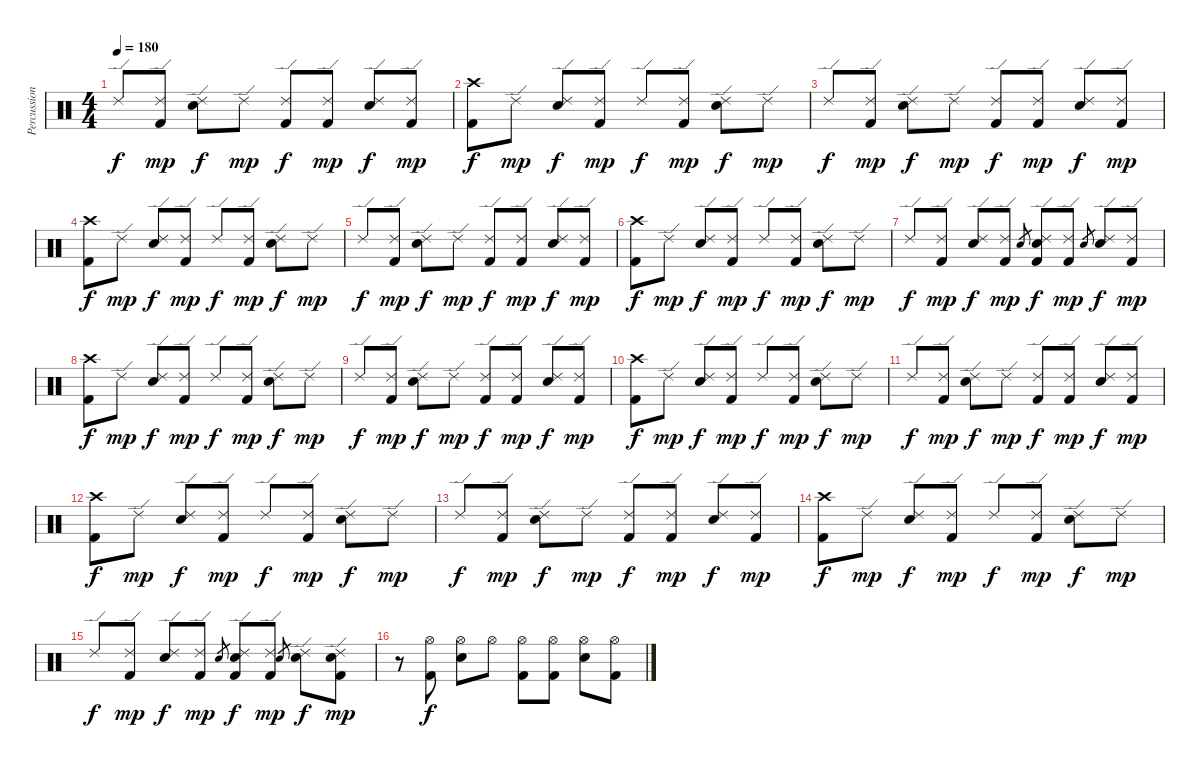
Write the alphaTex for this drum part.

\track ("Percussion" "Percussion") {instrument percussion}
\staff {score}
\articulation defaults
\ts (4 4)
\tempo 180
\clef neutral
\ks c "Ride (edge) 2".8{dy f}
("Ride (edge) 2" "Kick (hit) 2").8{dy mp} ("Ride (edge) 2" "Electric Snare (hit)").8{dy f} "Ride (edge) 2".8{dy mp} ("Ride (edge) 2" "Kick (hit) 2").8{dy f} ("Ride (edge) 2" "Kick (hit) 2").8{dy mp} ("Ride (edge) 2" "Electric Snare (hit)").8{dy f} ("Ride (edge) 2" "Kick (hit) 2").8{dy mp} |
("Crash high (hit)" "Kick (hit) 2").8{dy f} "Ride (edge) 2".8{dy mp} ("Ride (edge) 2" "Electric Snare (hit)").8{dy f} ("Ride (edge) 2" "Kick (hit) 2").8{dy mp} "Ride (edge) 2".8{dy f} ("Ride (edge) 2" "Kick (hit) 2").8{dy mp} ("Ride (edge) 2" "Electric Snare (hit)").8{dy f} "Ride (edge) 2".8{dy mp} |
"Ride (edge) 2".8{dy f} ("Ride (edge) 2" "Kick (hit) 2").8{dy mp} ("Ride (edge) 2" "Electric Snare (hit)").8{dy f} "Ride (edge) 2".8{dy mp} ("Ride (edge) 2" "Kick (hit) 2").8{dy f} ("Ride (edge) 2" "Kick (hit) 2").8{dy mp} ("Ride (edge) 2" "Electric Snare (hit)").8{dy f} ("Ride (edge) 2" "Kick (hit) 2").8{dy mp} |
("Crash high (hit)" "Kick (hit) 2").8{dy f} "Ride (edge) 2".8{dy mp} ("Ride (edge) 2" "Electric Snare (hit)").8{dy f} ("Ride (edge) 2" "Kick (hit) 2").8{dy mp} "Ride (edge) 2".8{dy f} ("Ride (edge) 2" "Kick (hit) 2").8{dy mp} ("Ride (edge) 2" "Electric Snare (hit)").8{dy f} "Ride (edge) 2".8{dy mp} |
"Ride (edge) 2".8{dy f} ("Ride (edge) 2" "Kick (hit) 2").8{dy mp} ("Ride (edge) 2" "Electric Snare (hit)").8{dy f} "Ride (edge) 2".8{dy mp} ("Ride (edge) 2" "Kick (hit) 2").8{dy f} ("Ride (edge) 2" "Kick (hit) 2").8{dy mp} ("Ride (edge) 2" "Electric Snare (hit)").8{dy f} ("Ride (edge) 2" "Kick (hit) 2").8{dy mp} |
("Crash high (hit)" "Kick (hit) 2").8{dy f} "Ride (edge) 2".8{dy mp} ("Ride (edge) 2" "Electric Snare (hit)").8{dy f} ("Ride (edge) 2" "Kick (hit) 2").8{dy mp} "Ride (edge) 2".8{dy f} ("Ride (edge) 2" "Kick (hit) 2").8{dy mp} ("Ride (edge) 2" "Electric Snare (hit)").8{dy f} "Ride (edge) 2".8{dy mp} |
"Ride (edge) 2".8{dy f} ("Ride (edge) 2" "Kick (hit) 2").8{dy mp} ("Ride (edge) 2" "Electric Snare (hit)").8{dy f} ("Ride (edge) 2" "Kick (hit) 2").8{dy mp} "Electric Snare (hit)".8{gr} ("Ride (edge) 2" "Electric Snare (hit)" "Kick (hit) 2").8{dy f} ("Ride (edge) 2" "Kick (hit) 2").8{dy mp} "Electric Snare (hit)".8{gr} ("Ride (edge) 2" "Electric Snare (hit)").8{dy f} ("Ride (edge) 2" "Kick (hit) 2").8{dy mp} |
("Crash high (hit)" "Kick (hit) 2").8{dy f} "Ride (edge) 2".8{dy mp} ("Ride (edge) 2" "Electric Snare (hit)").8{dy f} ("Ride (edge) 2" "Kick (hit) 2").8{dy mp} "Ride (edge) 2".8{dy f} ("Ride (edge) 2" "Kick (hit) 2").8{dy mp} ("Ride (edge) 2" "Electric Snare (hit)").8{dy f} "Ride (edge) 2".8{dy mp} |
"Ride (edge) 2".8{dy f} ("Ride (edge) 2" "Kick (hit) 2").8{dy mp} ("Ride (edge) 2" "Electric Snare (hit)").8{dy f} "Ride (edge) 2".8{dy mp} ("Ride (edge) 2" "Kick (hit) 2").8{dy f} ("Ride (edge) 2" "Kick (hit) 2").8{dy mp} ("Ride (edge) 2" "Electric Snare (hit)").8{dy f} ("Ride (edge) 2" "Kick (hit) 2").8{dy mp} |
("Crash high (hit)" "Kick (hit) 2").8{dy f} "Ride (edge) 2".8{dy mp} ("Ride (edge) 2" "Electric Snare (hit)").8{dy f} ("Ride (edge) 2" "Kick (hit) 2").8{dy mp} "Ride (edge) 2".8{dy f} ("Ride (edge) 2" "Kick (hit) 2").8{dy mp} ("Ride (edge) 2" "Electric Snare (hit)").8{dy f} "Ride (edge) 2".8{dy mp} |
"Ride (edge) 2".8{dy f} ("Ride (edge) 2" "Kick (hit) 2").8{dy mp} ("Ride (edge) 2" "Electric Snare (hit)").8{dy f} "Ride (edge) 2".8{dy mp} ("Ride (edge) 2" "Kick (hit) 2").8{dy f} ("Ride (edge) 2" "Kick (hit) 2").8{dy mp} ("Ride (edge) 2" "Electric Snare (hit)").8{dy f} ("Ride (edge) 2" "Kick (hit) 2").8{dy mp} |
("Crash high (hit)" "Kick (hit) 2").8{dy f} "Ride (edge) 2".8{dy mp} ("Ride (edge) 2" "Electric Snare (hit)").8{dy f} ("Ride (edge) 2" "Kick (hit) 2").8{dy mp} "Ride (edge) 2".8{dy f} ("Ride (edge) 2" "Kick (hit) 2").8{dy mp} ("Ride (edge) 2" "Electric Snare (hit)").8{dy f} "Ride (edge) 2".8{dy mp} |
"Ride (edge) 2".8{dy f} ("Ride (edge) 2" "Kick (hit) 2").8{dy mp} ("Ride (edge) 2" "Electric Snare (hit)").8{dy f} "Ride (edge) 2".8{dy mp} ("Ride (edge) 2" "Kick (hit) 2").8{dy f} ("Ride (edge) 2" "Kick (hit) 2").8{dy mp} ("Ride (edge) 2" "Electric Snare (hit)").8{dy f} ("Ride (edge) 2" "Kick (hit) 2").8{dy mp} |
("Crash high (hit)" "Kick (hit) 2").8{dy f} "Ride (edge) 2".8{dy mp} ("Ride (edge) 2" "Electric Snare (hit)").8{dy f} ("Ride (edge) 2" "Kick (hit) 2").8{dy mp} "Ride (edge) 2".8{dy f} ("Ride (edge) 2" "Kick (hit) 2").8{dy mp} ("Ride (edge) 2" "Electric Snare (hit)").8{dy f} "Ride (edge) 2".8{dy mp} |
"Ride (edge) 2".8{dy f} ("Ride (edge) 2" "Kick (hit) 2").8{dy mp} ("Ride (edge) 2" "Electric Snare (hit)").8{dy f} ("Ride (edge) 2" "Kick (hit) 2").8{dy mp} "Electric Snare (hit)".8{gr} ("Ride (edge) 2" "Electric Snare (hit)" "Kick (hit) 2").8{dy f} ("Ride (edge) 2" "Kick (hit) 2").8{dy mp} "Electric Snare (hit)".8{gr} ("Ride (edge) 2" "Electric Snare (hit)").8{dy f} ("Ride (edge) 2" "Electric Snare (hit)" "Kick (hit) 2").8{dy mp} |
r.8 ("Hi-Hat (open)" "Kick (hit) 2").8{dy f} ("Hi-Hat (open)" "Electric Snare (hit)").8 "Hi-Hat (open)".8 ("Hi-Hat (open)" "Kick (hit) 2").8 ("Hi-Hat (open)" "Kick (hit) 2").8 ("Hi-Hat (open)" "Electric Snare (hit)").8 ("Hi-Hat (open)" "Kick (hit) 2").8
